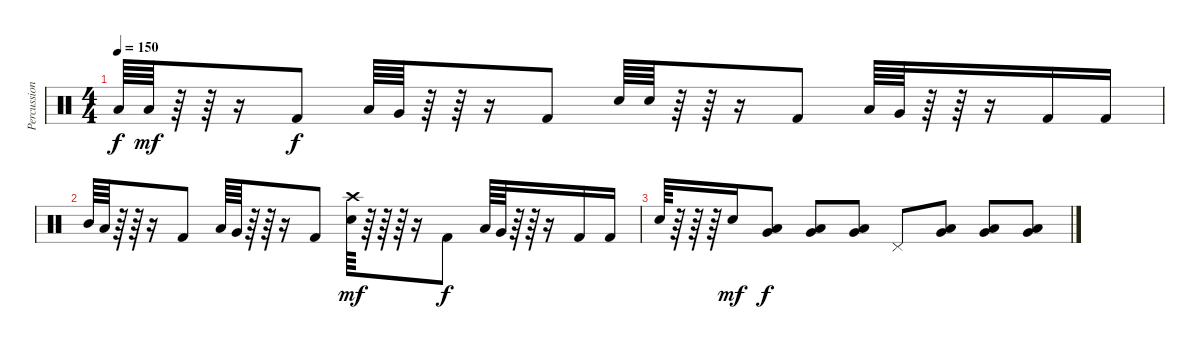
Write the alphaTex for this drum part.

\track ("Percussioni" "Percussion") {instrument percussion}
\staff {score}
\articulation defaults
\ts (4 4)
\tempo 150
\clef neutral
\ks c "Low Floor Tom (hit)".64{dy f} "Low Floor Tom (hit)".64{dy mf}
r.64 r.64 r.16 "Kick (hit) 2".8{dy f} "Low Tom (hit)".64 "Very Low Tom (hit)".64 r.64 r.64 r.16 "Kick (hit) 2".8 "Snare (hit) 2".64 "Snare (hit) 2".64 r.64 r.64 r.16 "Kick (hit) 2".8 "Low Tom (hit)".64 "Very Low Tom (hit)".64 r.64 r.64 r.16 "Kick (hit) 2".16 "Kick (hit) 2".16 |
"Mid Tom (hit)".64 "Low Tom (hit)".64 r.64 r.64 r.16 "Kick (hit) 2".8 "Low Tom (hit)".64 "Very Low Tom (hit)".64 r.64 r.64 r.16 "Kick (hit) 2".8 ("Snare (hit) 2" "Crash high (hit)").64{dy mf} r.64 r.64 r.64 r.16 "Kick (hit) 2".8{dy f} "Low Tom (hit)".64 "Very Low Tom (hit)".64 r.64 r.64 r.16 "Kick (hit) 2".16 "Kick (hit) 2".16 |
"Snare (hit) 2".64 r.64 r.64 r.64 "Snare (hit) 2".16{dy mf} ("Low Tom (hit)" "Very Low Tom (hit)").8{dy f} ("Low Tom (hit)" "Very Low Tom (hit)").8 ("Low Tom (hit)" "Very Low Tom (hit)").8 "Pedal Hi-Hat (hit)".8 ("Very Low Tom (hit)" "Low Floor Tom (hit)").8 ("Very Low Tom (hit)" "Low Floor Tom (hit)").8 ("Very Low Tom (hit)" "Low Floor Tom (hit)").8
